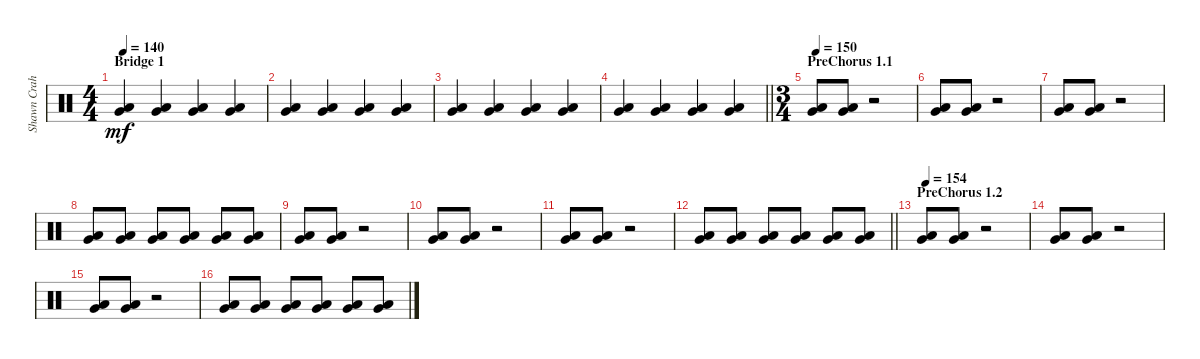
\track ("Shawn Crahan" "Shawn Crah") {instrument percussion}
\staff {score}
\articulation defaults
\ts (4 4)
\section ("" "Bridge 1")
\tempo 140
\clef neutral
\ks c
("Very Low Tom (hit)" "Low Floor Tom (hit)").4{dy mf} ("Very Low Tom (hit)" "Low Floor Tom (hit)").4 ("Very Low Tom (hit)" "Low Floor Tom (hit)").4 ("Very Low Tom (hit)" "Low Floor Tom (hit)").4 |
("Very Low Tom (hit)" "Low Floor Tom (hit)").4 ("Very Low Tom (hit)" "Low Floor Tom (hit)").4 ("Very Low Tom (hit)" "Low Floor Tom (hit)").4 ("Very Low Tom (hit)" "Low Floor Tom (hit)").4 |
("Very Low Tom (hit)" "Low Floor Tom (hit)").4 ("Very Low Tom (hit)" "Low Floor Tom (hit)").4 ("Very Low Tom (hit)" "Low Floor Tom (hit)").4 ("Very Low Tom (hit)" "Low Floor Tom (hit)").4 |
\barLineRight lightlight
("Very Low Tom (hit)" "Low Floor Tom (hit)").4 ("Very Low Tom (hit)" "Low Floor Tom (hit)").4 ("Very Low Tom (hit)" "Low Floor Tom (hit)").4 ("Very Low Tom (hit)" "Low Floor Tom (hit)").4 |
\ts (3 4)
\section ("" "PreChorus 1.1")
\tempo 150
("Very Low Tom (hit)" "Low Floor Tom (hit)").8 ("Very Low Tom (hit)" "Low Floor Tom (hit)").8 r.2 |
("Very Low Tom (hit)" "Low Floor Tom (hit)").8 ("Very Low Tom (hit)" "Low Floor Tom (hit)").8 r.2 |
("Very Low Tom (hit)" "Low Floor Tom (hit)").8 ("Very Low Tom (hit)" "Low Floor Tom (hit)").8 r.2 |
("Very Low Tom (hit)" "Low Floor Tom (hit)").8 ("Very Low Tom (hit)" "Low Floor Tom (hit)").8 ("Very Low Tom (hit)" "Low Floor Tom (hit)").8 ("Very Low Tom (hit)" "Low Floor Tom (hit)").8 ("Very Low Tom (hit)" "Low Floor Tom (hit)").8 ("Very Low Tom (hit)" "Low Floor Tom (hit)").8 |
("Very Low Tom (hit)" "Low Floor Tom (hit)").8 ("Very Low Tom (hit)" "Low Floor Tom (hit)").8 r.2 |
("Very Low Tom (hit)" "Low Floor Tom (hit)").8 ("Very Low Tom (hit)" "Low Floor Tom (hit)").8 r.2 |
("Very Low Tom (hit)" "Low Floor Tom (hit)").8 ("Very Low Tom (hit)" "Low Floor Tom (hit)").8 r.2 |
\barLineRight lightlight
("Very Low Tom (hit)" "Low Floor Tom (hit)").8 ("Very Low Tom (hit)" "Low Floor Tom (hit)").8 ("Very Low Tom (hit)" "Low Floor Tom (hit)").8 ("Very Low Tom (hit)" "Low Floor Tom (hit)").8 ("Very Low Tom (hit)" "Low Floor Tom (hit)").8 ("Very Low Tom (hit)" "Low Floor Tom (hit)").8 |
\section ("" "PreChorus 1.2")
\tempo 154
("Very Low Tom (hit)" "Low Floor Tom (hit)").8 ("Very Low Tom (hit)" "Low Floor Tom (hit)").8 r.2 |
("Very Low Tom (hit)" "Low Floor Tom (hit)").8 ("Very Low Tom (hit)" "Low Floor Tom (hit)").8 r.2 |
("Very Low Tom (hit)" "Low Floor Tom (hit)").8 ("Very Low Tom (hit)" "Low Floor Tom (hit)").8 r.2 |
("Very Low Tom (hit)" "Low Floor Tom (hit)").8 ("Very Low Tom (hit)" "Low Floor Tom (hit)").8 ("Very Low Tom (hit)" "Low Floor Tom (hit)").8 ("Very Low Tom (hit)" "Low Floor Tom (hit)").8 ("Very Low Tom (hit)" "Low Floor Tom (hit)").8 ("Very Low Tom (hit)" "Low Floor Tom (hit)").8
